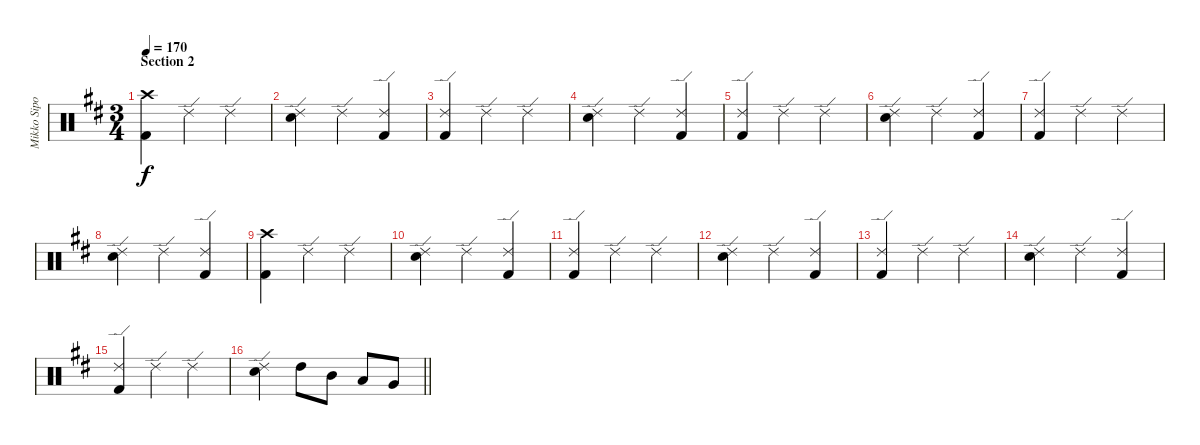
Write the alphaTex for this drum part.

\track ("Mikko Sipola (drums)" "Mikko Sipo") {instrument percussion}
\staff {score}
\articulation defaults
\ts (3 4)
\section ("" "Section 2")
\tempo 170
\clef neutral
\ks bminor
("Crash high (hit)" "Kick (hit) 2").4{dy f} "Ride (edge) 2".4 "Ride (edge) 2".4 |
("Ride (edge) 2" "Electric Snare (hit)").4 "Ride (edge) 2".4 ("Ride (edge) 2" "Kick (hit) 2").4 |
("Ride (edge) 2" "Kick (hit) 2").4 "Ride (edge) 2".4 "Ride (edge) 2".4 |
("Ride (edge) 2" "Electric Snare (hit)").4 "Ride (edge) 2".4 ("Ride (edge) 2" "Kick (hit) 2").4 |
("Ride (edge) 2" "Kick (hit) 2").4 "Ride (edge) 2".4 "Ride (edge) 2".4 |
("Ride (edge) 2" "Electric Snare (hit)").4 "Ride (edge) 2".4 ("Ride (edge) 2" "Kick (hit) 2").4 |
("Ride (edge) 2" "Kick (hit) 2").4 "Ride (edge) 2".4 "Ride (edge) 2".4 |
("Ride (edge) 2" "Electric Snare (hit)").4 "Ride (edge) 2".4 ("Ride (edge) 2" "Kick (hit) 2").4 |
("Crash high (hit)" "Kick (hit) 2").4 "Ride (edge) 2".4 "Ride (edge) 2".4 |
("Ride (edge) 2" "Electric Snare (hit)").4 "Ride (edge) 2".4 ("Ride (edge) 2" "Kick (hit) 2").4 |
("Ride (edge) 2" "Kick (hit) 2").4 "Ride (edge) 2".4 "Ride (edge) 2".4 |
("Ride (edge) 2" "Electric Snare (hit)").4 "Ride (edge) 2".4 ("Ride (edge) 2" "Kick (hit) 2").4 |
("Ride (edge) 2" "Kick (hit) 2").4 "Ride (edge) 2".4 "Ride (edge) 2".4 |
("Ride (edge) 2" "Electric Snare (hit)").4 "Ride (edge) 2".4 ("Ride (edge) 2" "Kick (hit) 2").4 |
("Ride (edge) 2" "Kick (hit) 2").4 "Ride (edge) 2".4 "Ride (edge) 2".4 |
\barLineRight lightlight
("Ride (edge) 2" "Electric Snare (hit)").4 "High Tom (hit)".8 "Mid Tom (hit)".8 "Low Tom (hit)".8 "Very Low Tom (hit)".8
